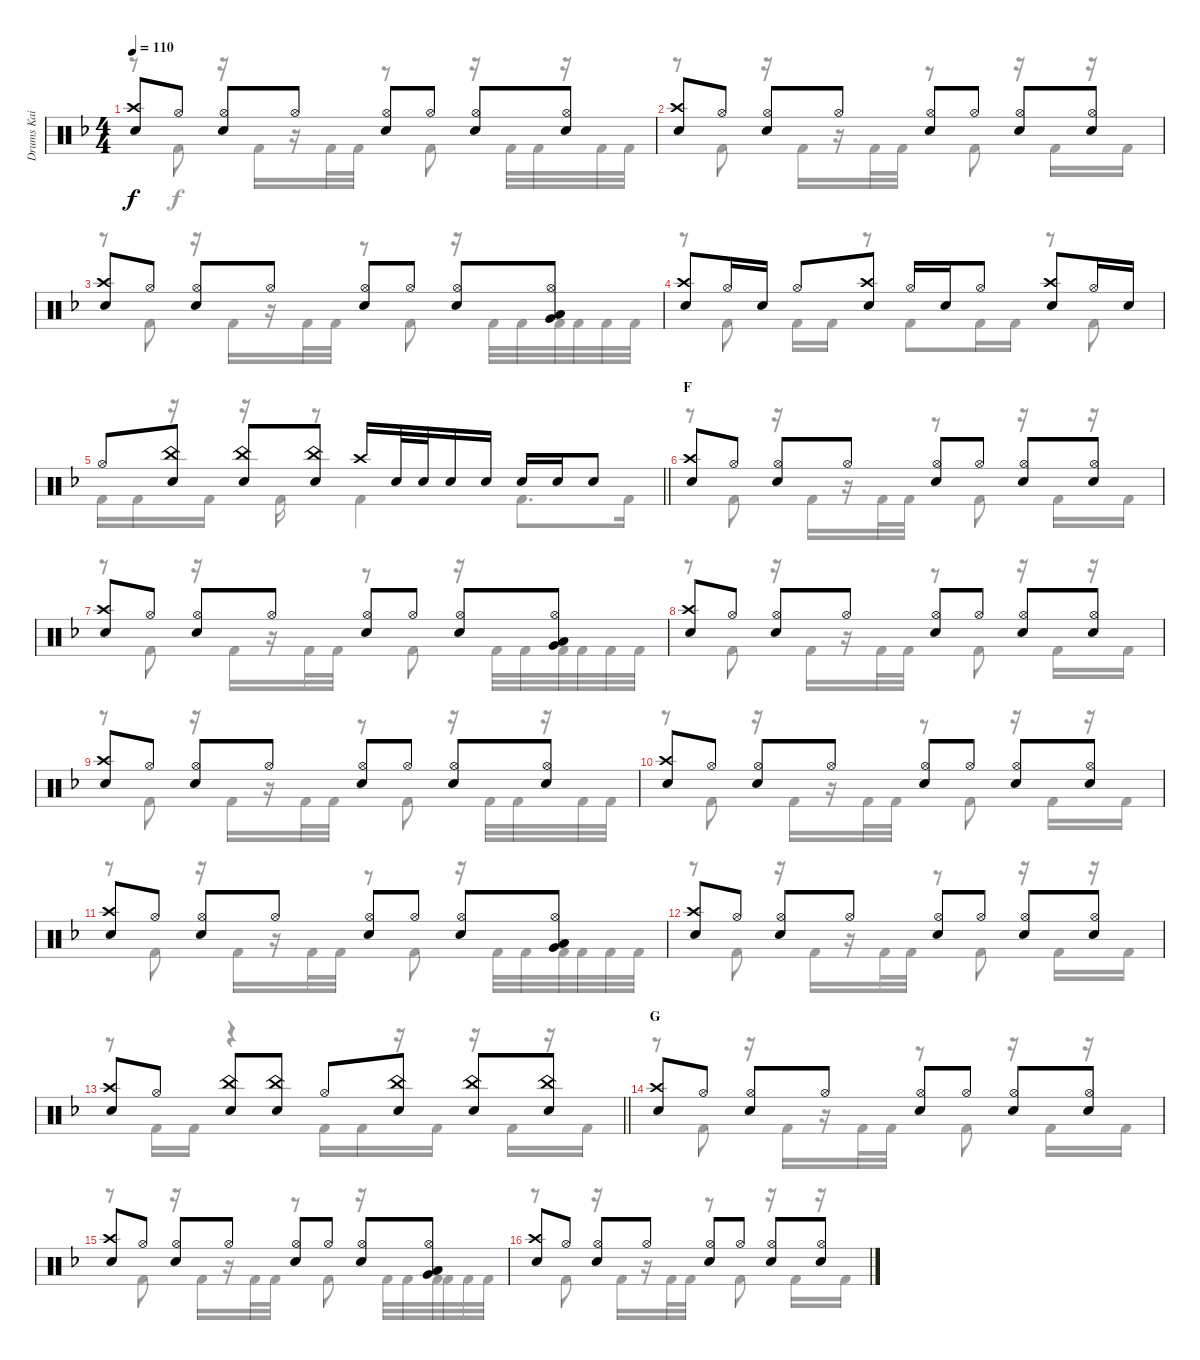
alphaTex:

\track ("Drums Kai" "Drums Kai") {instrument percussion}
\staff {score}
\articulation defaults
\voice
\ts (4 4)
\tempo 110
\clef neutral
\ks f
("Crash high (hit)" "Electric Snare (hit)").8{dy f} "Hi-Hat (open)".8 ("Hi-Hat (open)" "Electric Snare (hit)").8 "Hi-Hat (open)".8 ("Hi-Hat (open)" "Electric Snare (hit)").8 "Hi-Hat (open)".8 ("Hi-Hat (open)" "Electric Snare (hit)").8 ("Hi-Hat (open)" "Electric Snare (hit)").8 |
("Crash high (hit)" "Electric Snare (hit)").8 "Hi-Hat (open)".8 ("Hi-Hat (open)" "Electric Snare (hit)").8 "Hi-Hat (open)".8 ("Hi-Hat (open)" "Electric Snare (hit)").8 "Hi-Hat (open)".8 ("Hi-Hat (open)" "Electric Snare (hit)").8 ("Hi-Hat (open)" "Electric Snare (hit)").8 |
("Crash high (hit)" "Electric Snare (hit)").8 "Hi-Hat (open)".8 ("Hi-Hat (open)" "Electric Snare (hit)").8 "Hi-Hat (open)".8 ("Hi-Hat (open)" "Electric Snare (hit)").8 "Hi-Hat (open)".8 ("Hi-Hat (open)" "Electric Snare (hit)").8 ("Hi-Hat (open)" "Low Tom (hit)" "Very Low Tom (hit)").8 |
("Crash high (hit)" "Electric Snare (hit)").8 "Hi-Hat (open)".16 "Electric Snare (hit)".16 "Hi-Hat (open)".8 ("Crash high (hit)" "Electric Snare (hit)").8 "Hi-Hat (open)".16 "Electric Snare (hit)".16 "Hi-Hat (open)".8 ("Crash high (hit)" "Electric Snare (hit)").8 "Hi-Hat (open)".16 "Electric Snare (hit)".16 |
\barLineRight lightlight "Hi-Hat (open)".8
("China (hit)" "Electric Snare (hit)").8 ("China (hit)" "Electric Snare (hit)").8 ("China (hit)" "Electric Snare (hit)").8 "Crash high (hit)".16 "Electric Snare (hit)".32 "Electric Snare (hit)".32 "Electric Snare (hit)".16 "Electric Snare (hit)".16 "Electric Snare (hit)".16 "Electric Snare (hit)".16 "Electric Snare (hit)".8 |
\section ("" "F")
("Crash high (hit)" "Electric Snare (hit)").8 "Hi-Hat (open)".8 ("Hi-Hat (open)" "Electric Snare (hit)").8 "Hi-Hat (open)".8 ("Hi-Hat (open)" "Electric Snare (hit)").8 "Hi-Hat (open)".8 ("Hi-Hat (open)" "Electric Snare (hit)").8 ("Hi-Hat (open)" "Electric Snare (hit)").8 |
("Crash high (hit)" "Electric Snare (hit)").8 "Hi-Hat (open)".8 ("Hi-Hat (open)" "Electric Snare (hit)").8 "Hi-Hat (open)".8 ("Hi-Hat (open)" "Electric Snare (hit)").8 "Hi-Hat (open)".8 ("Hi-Hat (open)" "Electric Snare (hit)").8 ("Hi-Hat (open)" "Low Tom (hit)" "Very Low Tom (hit)").8 |
("Crash high (hit)" "Electric Snare (hit)").8 "Hi-Hat (open)".8 ("Hi-Hat (open)" "Electric Snare (hit)").8 "Hi-Hat (open)".8 ("Hi-Hat (open)" "Electric Snare (hit)").8 "Hi-Hat (open)".8 ("Hi-Hat (open)" "Electric Snare (hit)").8 ("Hi-Hat (open)" "Electric Snare (hit)").8 |
("Crash high (hit)" "Electric Snare (hit)").8 "Hi-Hat (open)".8 ("Hi-Hat (open)" "Electric Snare (hit)").8 "Hi-Hat (open)".8 ("Hi-Hat (open)" "Electric Snare (hit)").8 "Hi-Hat (open)".8 ("Hi-Hat (open)" "Electric Snare (hit)").8 ("Hi-Hat (open)" "Electric Snare (hit)").8 |
("Crash high (hit)" "Electric Snare (hit)").8 "Hi-Hat (open)".8 ("Hi-Hat (open)" "Electric Snare (hit)").8 "Hi-Hat (open)".8 ("Hi-Hat (open)" "Electric Snare (hit)").8 "Hi-Hat (open)".8 ("Hi-Hat (open)" "Electric Snare (hit)").8 ("Hi-Hat (open)" "Electric Snare (hit)").8 |
("Crash high (hit)" "Electric Snare (hit)").8 "Hi-Hat (open)".8 ("Hi-Hat (open)" "Electric Snare (hit)").8 "Hi-Hat (open)".8 ("Hi-Hat (open)" "Electric Snare (hit)").8 "Hi-Hat (open)".8 ("Hi-Hat (open)" "Electric Snare (hit)").8 ("Hi-Hat (open)" "Low Tom (hit)" "Very Low Tom (hit)").8 |
("Crash high (hit)" "Electric Snare (hit)").8 "Hi-Hat (open)".8 ("Hi-Hat (open)" "Electric Snare (hit)").8 "Hi-Hat (open)".8 ("Hi-Hat (open)" "Electric Snare (hit)").8 "Hi-Hat (open)".8 ("Hi-Hat (open)" "Electric Snare (hit)").8 ("Hi-Hat (open)" "Electric Snare (hit)").8 |
\barLineRight lightlight
("Crash high (hit)" "Electric Snare (hit)").8 "Hi-Hat (open)".8 ("China (hit)" "Electric Snare (hit)").8 ("China (hit)" "Electric Snare (hit)").8 "Hi-Hat (open)".8 ("China (hit)" "Electric Snare (hit)").8 ("China (hit)" "Electric Snare (hit)").8 ("China (hit)" "Electric Snare (hit)").8 |
\section ("" "G")
("Crash high (hit)" "Electric Snare (hit)").8 "Hi-Hat (open)".8 ("Hi-Hat (open)" "Electric Snare (hit)").8 "Hi-Hat (open)".8 ("Hi-Hat (open)" "Electric Snare (hit)").8 "Hi-Hat (open)".8 ("Hi-Hat (open)" "Electric Snare (hit)").8 ("Hi-Hat (open)" "Electric Snare (hit)").8 |
("Crash high (hit)" "Electric Snare (hit)").8 "Hi-Hat (open)".8 ("Hi-Hat (open)" "Electric Snare (hit)").8 "Hi-Hat (open)".8 ("Hi-Hat (open)" "Electric Snare (hit)").8 "Hi-Hat (open)".8 ("Hi-Hat (open)" "Electric Snare (hit)").8 ("Hi-Hat (open)" "Low Tom (hit)" "Very Low Tom (hit)").8 |
("Crash high (hit)" "Electric Snare (hit)").8 "Hi-Hat (open)".8 ("Hi-Hat (open)" "Electric Snare (hit)").8 "Hi-Hat (open)".8 ("Hi-Hat (open)" "Electric Snare (hit)").8 "Hi-Hat (open)".8 ("Hi-Hat (open)" "Electric Snare (hit)").8 ("Hi-Hat (open)" "Electric Snare (hit)").8
\voice
\clef neutral
\ottava regular
\simile none
\ks f
r.8{dy f} "Kick (hit) 2".8 r.16 "Kick (hit) 2".16 r.16 "Kick (hit) 2".32 "Kick (hit) 2".32 r.8 "Kick (hit) 2".8 r.16 "Kick (hit) 2".32 "Kick (hit) 2".32 r.16 "Kick (hit) 2".32 "Kick (hit) 2".32 |
r.8 "Kick (hit) 2".8 r.16 "Kick (hit) 2".16 r.16 "Kick (hit) 2".32 "Kick (hit) 2".32 r.8 "Kick (hit) 2".8 r.16 "Kick (hit) 2".16 r.16 "Kick (hit) 2".16 |
r.8 "Kick (hit) 2".8 r.16 "Kick (hit) 2".16 r.16 "Kick (hit) 2".32 "Kick (hit) 2".32 r.8 "Kick (hit) 2".8 r.16 "Kick (hit) 2".32 "Kick (hit) 2".32 "Kick (hit) 2".32 "Kick (hit) 2".32 "Kick (hit) 2".32 "Kick (hit) 2".32 |
r.8 "Kick (hit) 2".8 "Kick (hit) 2".16 "Kick (hit) 2".16 r.8 "Kick (hit) 2".8 "Kick (hit) 2".16 "Kick (hit) 2".16 r.8 "Kick (hit) 2".8 |
\barLineRight lightlight "Kick (hit) 2".16 "Kick (hit) 2".16
r.16 "Kick (hit) 2".16 r.16 "Kick (hit) 2".16 r.8 "Kick (hit) 2".4 "Kick (hit) 2".8{d} "Kick (hit) 2".16 |
r.8 "Kick (hit) 2".8 r.16 "Kick (hit) 2".16 r.16 "Kick (hit) 2".32 "Kick (hit) 2".32 r.8 "Kick (hit) 2".8 r.16 "Kick (hit) 2".16 r.16 "Kick (hit) 2".16 |
r.8 "Kick (hit) 2".8 r.16 "Kick (hit) 2".16 r.16 "Kick (hit) 2".32 "Kick (hit) 2".32 r.8 "Kick (hit) 2".8 r.16 "Kick (hit) 2".32 "Kick (hit) 2".32 "Kick (hit) 2".32 "Kick (hit) 2".32 "Kick (hit) 2".32 "Kick (hit) 2".32 |
r.8 "Kick (hit) 2".8 r.16 "Kick (hit) 2".16 r.16 "Kick (hit) 2".32 "Kick (hit) 2".32 r.8 "Kick (hit) 2".8 r.16 "Kick (hit) 2".16 r.16 "Kick (hit) 2".16 |
r.8 "Kick (hit) 2".8 r.16 "Kick (hit) 2".16 r.16 "Kick (hit) 2".32 "Kick (hit) 2".32 r.8 "Kick (hit) 2".8 r.16 "Kick (hit) 2".32 "Kick (hit) 2".32 r.16 "Kick (hit) 2".32 "Kick (hit) 2".32 |
r.8 "Kick (hit) 2".8 r.16 "Kick (hit) 2".16 r.16 "Kick (hit) 2".32 "Kick (hit) 2".32 r.8 "Kick (hit) 2".8 r.16 "Kick (hit) 2".16 r.16 "Kick (hit) 2".16 |
r.8 "Kick (hit) 2".8 r.16 "Kick (hit) 2".16 r.16 "Kick (hit) 2".32 "Kick (hit) 2".32 r.8 "Kick (hit) 2".8 r.16 "Kick (hit) 2".32 "Kick (hit) 2".32 "Kick (hit) 2".32 "Kick (hit) 2".32 "Kick (hit) 2".32 "Kick (hit) 2".32 |
r.8 "Kick (hit) 2".8 r.16 "Kick (hit) 2".16 r.16 "Kick (hit) 2".32 "Kick (hit) 2".32 r.8 "Kick (hit) 2".8 r.16 "Kick (hit) 2".16 r.16 "Kick (hit) 2".16 |
\barLineRight lightlight
r.8 "Kick (hit) 2".16 "Kick (hit) 2".16 r.4 "Kick (hit) 2".16 "Kick (hit) 2".16 r.16 "Kick (hit) 2".16 r.16 "Kick (hit) 2".16 r.16 "Kick (hit) 2".16 |
r.8 "Kick (hit) 2".8 r.16 "Kick (hit) 2".16 r.16 "Kick (hit) 2".32 "Kick (hit) 2".32 r.8 "Kick (hit) 2".8 r.16 "Kick (hit) 2".16 r.16 "Kick (hit) 2".16 |
r.8 "Kick (hit) 2".8 r.16 "Kick (hit) 2".16 r.16 "Kick (hit) 2".32 "Kick (hit) 2".32 r.8 "Kick (hit) 2".8 r.16 "Kick (hit) 2".32 "Kick (hit) 2".32 "Kick (hit) 2".32 "Kick (hit) 2".32 "Kick (hit) 2".32 "Kick (hit) 2".32 |
r.8 "Kick (hit) 2".8 r.16 "Kick (hit) 2".16 r.16 "Kick (hit) 2".32 "Kick (hit) 2".32 r.8 "Kick (hit) 2".8 r.16 "Kick (hit) 2".16 r.16 "Kick (hit) 2".16
